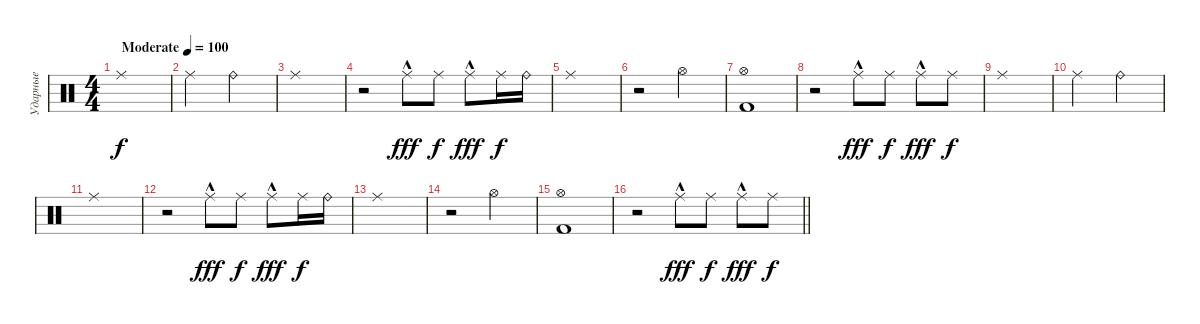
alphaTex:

\track ("Ударные" "Ударные") {instrument percussion}
\staff {score}
\articulation defaults
\ts (4 4)
\section ("" "")
\tempo (100 "Moderate")
\clef neutral
\ks c "Ride (middle)".1{dy f}
|
"Ride (middle)".2 "Ride (bell)".2 |
"Ride (middle)".1 |
r.2 "Ride (middle)"{hac}.8{dy fff} "Ride (middle)".8{dy f} "Ride (middle)"{hac}.8{dy fff} "Ride (middle)".16{dy f} "Ride (bell)".16 |
"Ride (middle)".1 |
r.2 "Hi-Hat (open)".2 |
("Hi-Hat (open)" "Kick (hit) 2").1 |
r.2 "Ride (middle)"{hac}.8{dy fff} "Ride (middle)".8{dy f} "Ride (middle)"{hac}.8{dy fff} "Ride (middle)".8{dy f} |
"Ride (middle)".1 |
"Ride (middle)".2 "Ride (bell)".2 |
"Ride (middle)".1 |
r.2 "Ride (middle)"{hac}.8{dy fff} "Ride (middle)".8{dy f} "Ride (middle)"{hac}.8{dy fff} "Ride (middle)".16{dy f} "Ride (bell)".16 |
"Ride (middle)".1 |
r.2 "Hi-Hat (open)".2 |
("Hi-Hat (open)" "Kick (hit) 2").1 |
\barLineRight lightlight
r.2 "Ride (middle)"{hac}.8{dy fff} "Ride (middle)".8{dy f} "Ride (middle)"{hac}.8{dy fff} "Ride (middle)".8{dy f}
